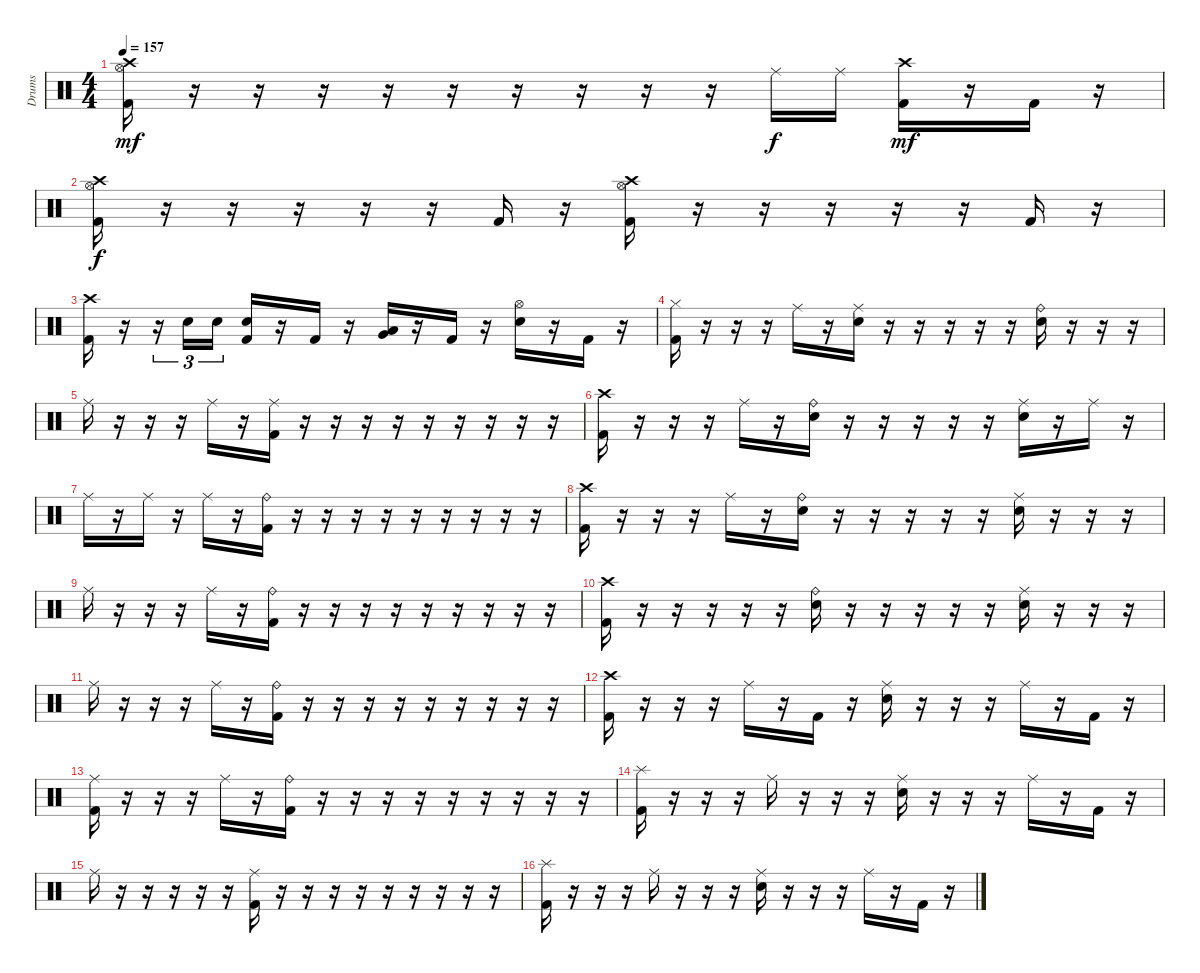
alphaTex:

\track ("Drums" "Drums") {instrument percussion}
\staff {score}
\articulation defaults
\ts (4 4)
\tempo 157
\clef neutral
\ks c
("Crash high (hit)" "Hi-Hat (open)" "Kick (hit) 2").16{dy mf} r.16 r.16 r.16 r.16 r.16 r.16 r.16 r.16 r.16 "Ride (middle)".16{dy f} "Ride (middle)".16 ("Crash high (hit)" "Kick (hit) 2").16{dy mf} r.16 "Kick (hit) 2".16 r.16 |
("Crash high (hit)" "Hi-Hat (open)" "Kick (hit) 2").16{dy f} r.16 r.16 r.16 r.16 r.16 "Kick (hit) 2".16 r.16 ("Crash high (hit)" "Hi-Hat (open)" "Kick (hit) 2").16 r.16 r.16 r.16 r.16 r.16 "Kick (hit) 2".16 r.16 |
("Crash high (hit)" "Kick (hit) 2").16 r.16 r.16{tu (3 2)} "Snare (hit) 2".16{tu (3 2)} "Snare (hit) 2".16{tu (3 2)} ("Snare (hit) 2" "Kick (hit) 2").16 r.16 "Kick (hit) 2".16 r.16 ("Very Low Tom (hit)" "Low Tom (hit)").16 r.16 "Kick (hit) 2".16 r.16 ("Hi-Hat (open)" "Snare (hit) 2").16 r.16 "Kick (hit) 2".16 r.16 |
("Hi-Hat (closed)" "Kick (hit) 2").16 r.16 r.16 r.16 "Ride (middle)".16 r.16 ("Ride (middle)" "Snare (hit) 2").16 r.16 r.16 r.16 r.16 r.16 ("Ride (bell)" "Snare (hit) 2").16 r.16 r.16 r.16 |
"Ride (middle)".16 r.16 r.16 r.16 "Ride (middle)".16 r.16 ("Ride (middle)" "Kick (hit) 2").16 r.16 r.16 r.16 r.16 r.16 r.16 r.16 r.16 r.16 |
("Crash high (hit)" "Kick (hit) 2").16 r.16 r.16 r.16 "Ride (middle)".16 r.16 ("Ride (bell)" "Snare (hit) 2").16 r.16 r.16 r.16 r.16 r.16 ("Ride (middle)" "Snare (hit) 2").16 r.16 "Ride (middle)".16 r.16 |
"Ride (middle)".16 r.16 "Ride (middle)".16 r.16 "Ride (middle)".16 r.16 ("Ride (bell)" "Kick (hit) 2").16 r.16 r.16 r.16 r.16 r.16 r.16 r.16 r.16 r.16 |
("Crash high (hit)" "Kick (hit) 2").16 r.16 r.16 r.16 "Ride (middle)".16 r.16 ("Ride (bell)" "Snare (hit) 2").16 r.16 r.16 r.16 r.16 r.16 ("Ride (middle)" "Snare (hit) 2").16 r.16 r.16 r.16 |
"Ride (middle)".16 r.16 r.16 r.16 "Ride (middle)".16 r.16 ("Ride (bell)" "Kick (hit) 2").16 r.16 r.16 r.16 r.16 r.16 r.16 r.16 r.16 r.16 |
("Crash high (hit)" "Kick (hit) 2").16 r.16 r.16 r.16 r.16 r.16 ("Ride (bell)" "Snare (hit) 2").16 r.16 r.16 r.16 r.16 r.16 ("Ride (middle)" "Snare (hit) 2").16 r.16 r.16 r.16 |
"Ride (middle)".16 r.16 r.16 r.16 "Ride (middle)".16 r.16 ("Ride (bell)" "Kick (hit) 2").16 r.16 r.16 r.16 r.16 r.16 r.16 r.16 r.16 r.16 |
("Crash high (hit)" "Kick (hit) 2").16 r.16 r.16 r.16 "Ride (middle)".16 r.16 "Kick (hit) 2".16 r.16 ("Ride (middle)" "Snare (hit) 2").16 r.16 r.16 r.16 "Ride (middle)".16 r.16 "Kick (hit) 2".16 r.16 |
("Ride (middle)" "Kick (hit) 2").16 r.16 r.16 r.16 "Ride (middle)".16 r.16 ("Ride (bell)" "Kick (hit) 2").16 r.16 r.16 r.16 r.16 r.16 r.16 r.16 r.16 r.16 |
("Splash (hit)" "Kick (hit) 2").16 r.16 r.16 r.16 "Ride (middle)".16 r.16 r.16 r.16 ("Ride (middle)" "Snare (hit) 2").16 r.16 r.16 r.16 "Ride (middle)".16 r.16 "Kick (hit) 2".16 r.16 |
"Ride (middle)".16 r.16 r.16 r.16 r.16 r.16 ("Ride (middle)" "Kick (hit) 2").16 r.16 r.16 r.16 r.16 r.16 r.16 r.16 r.16 r.16 |
("Splash (hit)" "Kick (hit) 2").16 r.16 r.16 r.16 "Ride (middle)".16 r.16 r.16 r.16 ("Ride (middle)" "Snare (hit) 2").16 r.16 r.16 r.16 "Ride (middle)".16 r.16 "Kick (hit) 2".16 r.16
